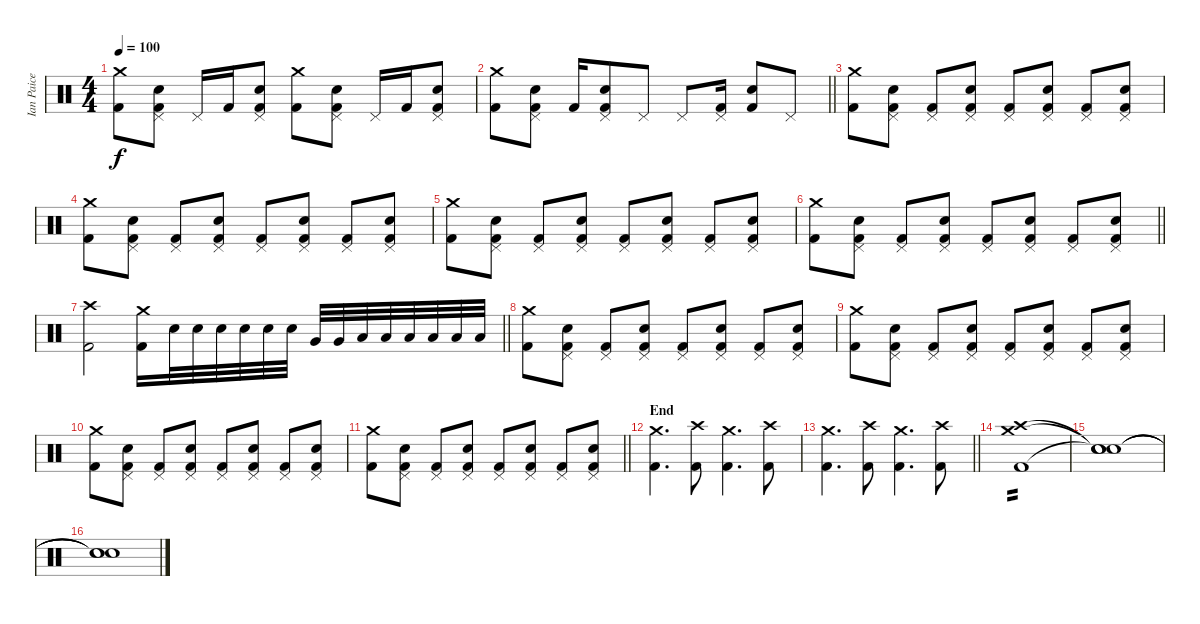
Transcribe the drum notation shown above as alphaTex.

\track ("Ian Paice - Drums" "Ian Paice ") {instrument percussion}
\staff {score}
\articulation defaults
\ts (4 4)
\tempo 100
\clef neutral
\ks c
("Kick (hit) 2" "Crash medium (hit)").8{dy f} ("Kick (hit) 2" "Pedal Hi-Hat (hit)" "Electric Snare (hit)").8 "Pedal Hi-Hat (hit)".16 "Kick (hit) 2".16 ("Kick (hit) 2" "Pedal Hi-Hat (hit)" "Electric Snare (hit)").8 ("Kick (hit) 2" "Crash medium (hit)").8 ("Kick (hit) 2" "Pedal Hi-Hat (hit)" "Electric Snare (hit)").8 "Pedal Hi-Hat (hit)".16 "Kick (hit) 2".16 ("Kick (hit) 2" "Pedal Hi-Hat (hit)" "Electric Snare (hit)").8 |
\barLineRight lightlight
("Kick (hit) 2" "Crash medium (hit)").8 ("Kick (hit) 2" "Pedal Hi-Hat (hit)" "Electric Snare (hit)").8 "Kick (hit) 2".16 ("Kick (hit) 2" "Pedal Hi-Hat (hit)" "Electric Snare (hit)").8 "Pedal Hi-Hat (hit)".8 "Pedal Hi-Hat (hit)".8 ("Kick (hit) 2" "Pedal Hi-Hat (hit)").16 ("Kick (hit) 2" "Electric Snare (hit)").8 "Pedal Hi-Hat (hit)".8 |
("Kick (hit) 2" "Crash medium (hit)").8 ("Kick (hit) 2" "Pedal Hi-Hat (hit)" "Electric Snare (hit)").8 ("Kick (hit) 2" "Pedal Hi-Hat (hit)").8 ("Kick (hit) 2" "Pedal Hi-Hat (hit)" "Electric Snare (hit)").8 ("Kick (hit) 2" "Pedal Hi-Hat (hit)").8 ("Kick (hit) 2" "Pedal Hi-Hat (hit)" "Electric Snare (hit)").8 ("Kick (hit) 2" "Pedal Hi-Hat (hit)").8 ("Kick (hit) 2" "Pedal Hi-Hat (hit)" "Electric Snare (hit)").8 |
("Kick (hit) 2" "Crash medium (hit)").8 ("Kick (hit) 2" "Pedal Hi-Hat (hit)" "Electric Snare (hit)").8 ("Kick (hit) 2" "Pedal Hi-Hat (hit)").8 ("Kick (hit) 2" "Pedal Hi-Hat (hit)" "Electric Snare (hit)").8 ("Kick (hit) 2" "Pedal Hi-Hat (hit)").8 ("Kick (hit) 2" "Pedal Hi-Hat (hit)" "Electric Snare (hit)").8 ("Kick (hit) 2" "Pedal Hi-Hat (hit)").8 ("Kick (hit) 2" "Pedal Hi-Hat (hit)" "Electric Snare (hit)").8 |
("Kick (hit) 2" "Crash medium (hit)").8 ("Kick (hit) 2" "Pedal Hi-Hat (hit)" "Electric Snare (hit)").8 ("Kick (hit) 2" "Pedal Hi-Hat (hit)").8 ("Kick (hit) 2" "Pedal Hi-Hat (hit)" "Electric Snare (hit)").8 ("Kick (hit) 2" "Pedal Hi-Hat (hit)").8 ("Kick (hit) 2" "Pedal Hi-Hat (hit)" "Electric Snare (hit)").8 ("Kick (hit) 2" "Pedal Hi-Hat (hit)").8 ("Kick (hit) 2" "Pedal Hi-Hat (hit)" "Electric Snare (hit)").8 |
\barLineRight lightlight
("Kick (hit) 2" "Crash medium (hit)").8 ("Kick (hit) 2" "Pedal Hi-Hat (hit)" "Electric Snare (hit)").8 ("Kick (hit) 2" "Pedal Hi-Hat (hit)").8 ("Kick (hit) 2" "Pedal Hi-Hat (hit)" "Electric Snare (hit)").8 ("Kick (hit) 2" "Pedal Hi-Hat (hit)").8 ("Kick (hit) 2" "Pedal Hi-Hat (hit)" "Electric Snare (hit)").8 ("Kick (hit) 2" "Pedal Hi-Hat (hit)").8 ("Kick (hit) 2" "Pedal Hi-Hat (hit)" "Electric Snare (hit)").8 |
\barLineRight lightlight
("Kick (hit) 2" "Crash high (hit)").2 ("Kick (hit) 2" "Crash medium (hit)").16 "Electric Snare (hit)".32 "Electric Snare (hit)".32 "Electric Snare (hit)".32 "Electric Snare (hit)".32 "Electric Snare (hit)".32 "Electric Snare (hit)".32 "Very Low Tom (hit)".32 "Very Low Tom (hit)".32 "Low Floor Tom (hit)".32 "Low Floor Tom (hit)".32 "Low Floor Tom (hit)".32 "Low Floor Tom (hit)".32 "Low Floor Tom (hit)".32 "Low Floor Tom (hit)".32 |
("Kick (hit) 2" "Crash medium (hit)").8 ("Kick (hit) 2" "Pedal Hi-Hat (hit)" "Electric Snare (hit)").8 ("Kick (hit) 2" "Pedal Hi-Hat (hit)").8 ("Kick (hit) 2" "Pedal Hi-Hat (hit)" "Electric Snare (hit)").8 ("Kick (hit) 2" "Pedal Hi-Hat (hit)").8 ("Kick (hit) 2" "Pedal Hi-Hat (hit)" "Electric Snare (hit)").8 ("Kick (hit) 2" "Pedal Hi-Hat (hit)").8 ("Kick (hit) 2" "Pedal Hi-Hat (hit)" "Electric Snare (hit)").8 |
("Kick (hit) 2" "Crash medium (hit)").8 ("Kick (hit) 2" "Pedal Hi-Hat (hit)" "Electric Snare (hit)").8 ("Kick (hit) 2" "Pedal Hi-Hat (hit)").8 ("Kick (hit) 2" "Pedal Hi-Hat (hit)" "Electric Snare (hit)").8 ("Kick (hit) 2" "Pedal Hi-Hat (hit)").8 ("Kick (hit) 2" "Pedal Hi-Hat (hit)" "Electric Snare (hit)").8 ("Kick (hit) 2" "Pedal Hi-Hat (hit)").8 ("Kick (hit) 2" "Pedal Hi-Hat (hit)" "Electric Snare (hit)").8 |
("Kick (hit) 2" "Crash medium (hit)").8 ("Kick (hit) 2" "Pedal Hi-Hat (hit)" "Electric Snare (hit)").8 ("Kick (hit) 2" "Pedal Hi-Hat (hit)").8 ("Kick (hit) 2" "Pedal Hi-Hat (hit)" "Electric Snare (hit)").8 ("Kick (hit) 2" "Pedal Hi-Hat (hit)").8 ("Kick (hit) 2" "Pedal Hi-Hat (hit)" "Electric Snare (hit)").8 ("Kick (hit) 2" "Pedal Hi-Hat (hit)").8 ("Kick (hit) 2" "Pedal Hi-Hat (hit)" "Electric Snare (hit)").8 |
\barLineRight lightlight
("Kick (hit) 2" "Crash medium (hit)").8 ("Kick (hit) 2" "Pedal Hi-Hat (hit)" "Electric Snare (hit)").8 ("Kick (hit) 2" "Pedal Hi-Hat (hit)").8 ("Kick (hit) 2" "Pedal Hi-Hat (hit)" "Electric Snare (hit)").8 ("Kick (hit) 2" "Pedal Hi-Hat (hit)").8 ("Kick (hit) 2" "Pedal Hi-Hat (hit)" "Electric Snare (hit)").8 ("Kick (hit) 2" "Pedal Hi-Hat (hit)").8 ("Kick (hit) 2" "Pedal Hi-Hat (hit)" "Electric Snare (hit)").8 |
\section ("" "End")
("Kick (hit) 2" "Crash medium (hit)").4{d} ("Kick (hit) 2" "Crash high (hit)").8 ("Kick (hit) 2" "Crash medium (hit)").4{d} ("Kick (hit) 2" "Crash high (hit)").8 |
\barLineRight lightlight
("Kick (hit) 2" "Crash medium (hit)").4{d} ("Kick (hit) 2" "Crash high (hit)").8 ("Kick (hit) 2" "Crash medium (hit)").4{d} ("Kick (hit) 2" "Crash high (hit)").8 |
("Kick (hit) 2" "Crash medium (hit)" "Crash high (hit)").1{tp 2} |
("Snare (hit)"{t} "Snare (hit)"{t} "Snare (hit)"{t}).1 |
("Snare (hit)"{t} "Snare (hit)"{t} "Snare (hit)"{t}).1
